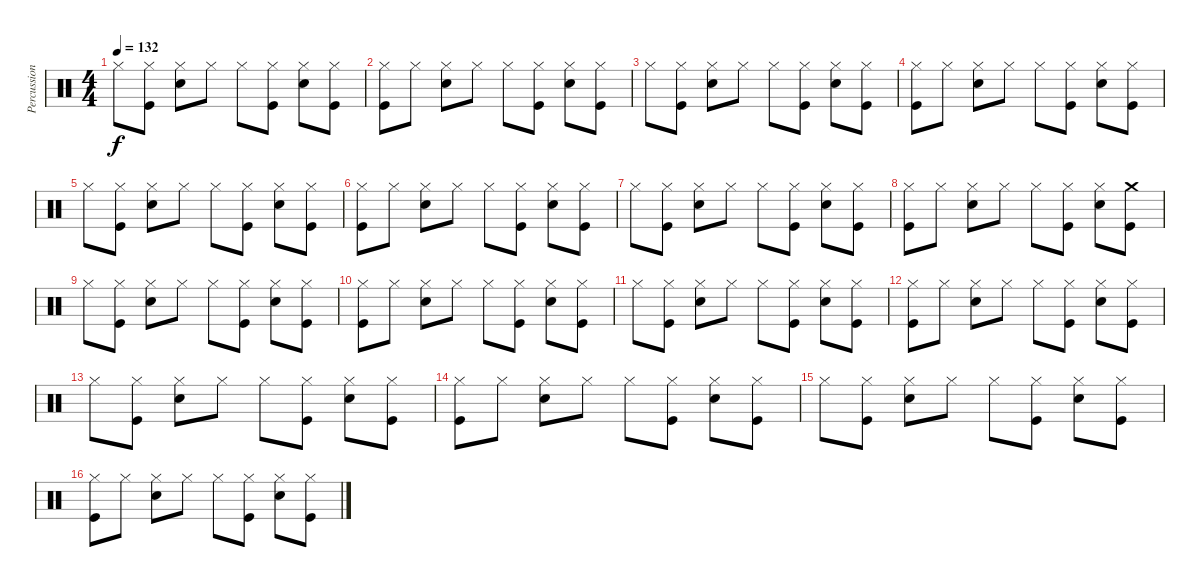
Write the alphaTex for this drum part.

\track ("Percussion" "Percussion") {instrument percussion}
\staff {score}
\articulation defaults
\ts (4 4)
\tempo 132
\clef neutral
\ks c "Hi-Hat (closed)".8{dy f}
("Hi-Hat (closed)" "Kick (hit)").8 ("Hi-Hat (closed)" "Snare (hit) 2").8 "Hi-Hat (closed)".8 "Hi-Hat (closed)".8 ("Hi-Hat (closed)" "Kick (hit)").8 ("Hi-Hat (closed)" "Snare (hit) 2").8 ("Hi-Hat (closed)" "Kick (hit)").8 |
("Hi-Hat (closed)" "Kick (hit)").8 "Hi-Hat (closed)".8 ("Hi-Hat (closed)" "Snare (hit) 2").8 "Hi-Hat (closed)".8 "Hi-Hat (closed)".8 ("Hi-Hat (closed)" "Kick (hit)").8 ("Hi-Hat (closed)" "Snare (hit) 2").8 ("Hi-Hat (closed)" "Kick (hit)").8 |
"Hi-Hat (closed)".8 ("Hi-Hat (closed)" "Kick (hit)").8 ("Hi-Hat (closed)" "Snare (hit) 2").8 "Hi-Hat (closed)".8 "Hi-Hat (closed)".8 ("Hi-Hat (closed)" "Kick (hit)").8 ("Hi-Hat (closed)" "Snare (hit) 2").8 ("Hi-Hat (closed)" "Kick (hit)").8 |
("Hi-Hat (closed)" "Kick (hit)").8 "Hi-Hat (closed)".8 ("Hi-Hat (closed)" "Snare (hit) 2").8 "Hi-Hat (closed)".8 "Hi-Hat (closed)".8 ("Hi-Hat (closed)" "Kick (hit)").8 ("Hi-Hat (closed)" "Snare (hit) 2").8 ("Hi-Hat (closed)" "Kick (hit)").8 |
"Hi-Hat (closed)".8 ("Hi-Hat (closed)" "Kick (hit)").8 ("Hi-Hat (closed)" "Snare (hit) 2").8 "Hi-Hat (closed)".8 "Hi-Hat (closed)".8 ("Hi-Hat (closed)" "Kick (hit)").8 ("Hi-Hat (closed)" "Snare (hit) 2").8 ("Hi-Hat (closed)" "Kick (hit)").8 |
("Hi-Hat (closed)" "Kick (hit)").8 "Hi-Hat (closed)".8 ("Hi-Hat (closed)" "Snare (hit) 2").8 "Hi-Hat (closed)".8 "Hi-Hat (closed)".8 ("Hi-Hat (closed)" "Kick (hit)").8 ("Hi-Hat (closed)" "Snare (hit) 2").8 ("Hi-Hat (closed)" "Kick (hit)").8 |
"Hi-Hat (closed)".8 ("Hi-Hat (closed)" "Kick (hit)").8 ("Hi-Hat (closed)" "Snare (hit) 2").8 "Hi-Hat (closed)".8 "Hi-Hat (closed)".8 ("Hi-Hat (closed)" "Kick (hit)").8 ("Hi-Hat (closed)" "Snare (hit) 2").8 ("Hi-Hat (closed)" "Kick (hit)").8 |
("Hi-Hat (closed)" "Kick (hit)").8 "Hi-Hat (closed)".8 ("Hi-Hat (closed)" "Snare (hit) 2").8 "Hi-Hat (closed)".8 "Hi-Hat (closed)".8 ("Hi-Hat (closed)" "Kick (hit)").8 ("Hi-Hat (closed)" "Snare (hit) 2").8 ("Crash medium (hit)" "Kick (hit)").8 |
"Hi-Hat (closed)".8 ("Hi-Hat (closed)" "Kick (hit)").8 ("Hi-Hat (closed)" "Snare (hit) 2").8 "Hi-Hat (closed)".8 "Hi-Hat (closed)".8 ("Hi-Hat (closed)" "Kick (hit)").8 ("Hi-Hat (closed)" "Snare (hit) 2").8 ("Hi-Hat (closed)" "Kick (hit)").8 |
("Hi-Hat (closed)" "Kick (hit)").8 "Hi-Hat (closed)".8 ("Hi-Hat (closed)" "Snare (hit) 2").8 "Hi-Hat (closed)".8 "Hi-Hat (closed)".8 ("Hi-Hat (closed)" "Kick (hit)").8 ("Hi-Hat (closed)" "Snare (hit) 2").8 ("Hi-Hat (closed)" "Kick (hit)").8 |
"Hi-Hat (closed)".8 ("Hi-Hat (closed)" "Kick (hit)").8 ("Hi-Hat (closed)" "Snare (hit) 2").8 "Hi-Hat (closed)".8 "Hi-Hat (closed)".8 ("Hi-Hat (closed)" "Kick (hit)").8 ("Hi-Hat (closed)" "Snare (hit) 2").8 ("Hi-Hat (closed)" "Kick (hit)").8 |
("Hi-Hat (closed)" "Kick (hit)").8 "Hi-Hat (closed)".8 ("Hi-Hat (closed)" "Snare (hit) 2").8 "Hi-Hat (closed)".8 "Hi-Hat (closed)".8 ("Hi-Hat (closed)" "Kick (hit)").8 ("Hi-Hat (closed)" "Snare (hit) 2").8 ("Hi-Hat (closed)" "Kick (hit)").8 |
"Hi-Hat (closed)".8 ("Hi-Hat (closed)" "Kick (hit)").8 ("Hi-Hat (closed)" "Snare (hit) 2").8 "Hi-Hat (closed)".8 "Hi-Hat (closed)".8 ("Hi-Hat (closed)" "Kick (hit)").8 ("Hi-Hat (closed)" "Snare (hit) 2").8 ("Hi-Hat (closed)" "Kick (hit)").8 |
("Hi-Hat (closed)" "Kick (hit)").8 "Hi-Hat (closed)".8 ("Hi-Hat (closed)" "Snare (hit) 2").8 "Hi-Hat (closed)".8 "Hi-Hat (closed)".8 ("Hi-Hat (closed)" "Kick (hit)").8 ("Hi-Hat (closed)" "Snare (hit) 2").8 ("Hi-Hat (closed)" "Kick (hit)").8 |
"Hi-Hat (closed)".8 ("Hi-Hat (closed)" "Kick (hit)").8 ("Hi-Hat (closed)" "Snare (hit) 2").8 "Hi-Hat (closed)".8 "Hi-Hat (closed)".8 ("Hi-Hat (closed)" "Kick (hit)").8 ("Hi-Hat (closed)" "Snare (hit) 2").8 ("Hi-Hat (closed)" "Kick (hit)").8 |
("Hi-Hat (closed)" "Kick (hit)").8 "Hi-Hat (closed)".8 ("Hi-Hat (closed)" "Snare (hit) 2").8 "Hi-Hat (closed)".8 "Hi-Hat (closed)".8 ("Hi-Hat (closed)" "Kick (hit)").8 ("Hi-Hat (closed)" "Snare (hit) 2").8 ("Hi-Hat (closed)" "Kick (hit)").8
